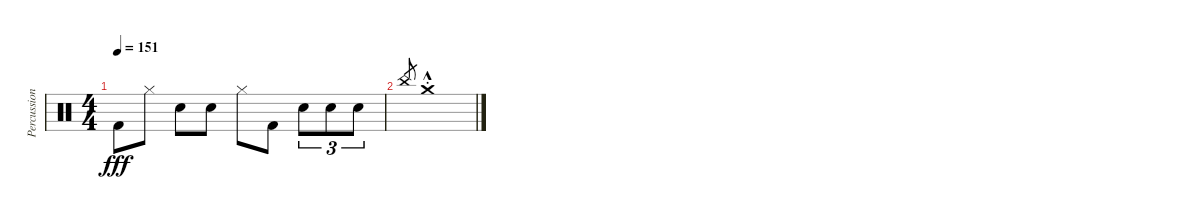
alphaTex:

\track ("Percussion" "Percussion") {instrument percussion bank 1}
\staff {score}
\articulation defaults
\ts (4 4)
\tempo 151
\clef neutral
\ks c "Kick (hit) 2".8{dy fff} "Hi-Hat (closed)".8 "Snare (hit) 2".8 "Snare (hit) 2".8 "Hi-Hat (closed)".8 "Kick (hit) 2".8 "Snare (hit) 2".8{tu (3 2)} "Snare (hit) 2".8{tu (3 2)} "Snare (hit) 2".8{tu (3 2)}
|
"China (hit)".8{gr} "Crash medium (hit)"{hac st}.1
